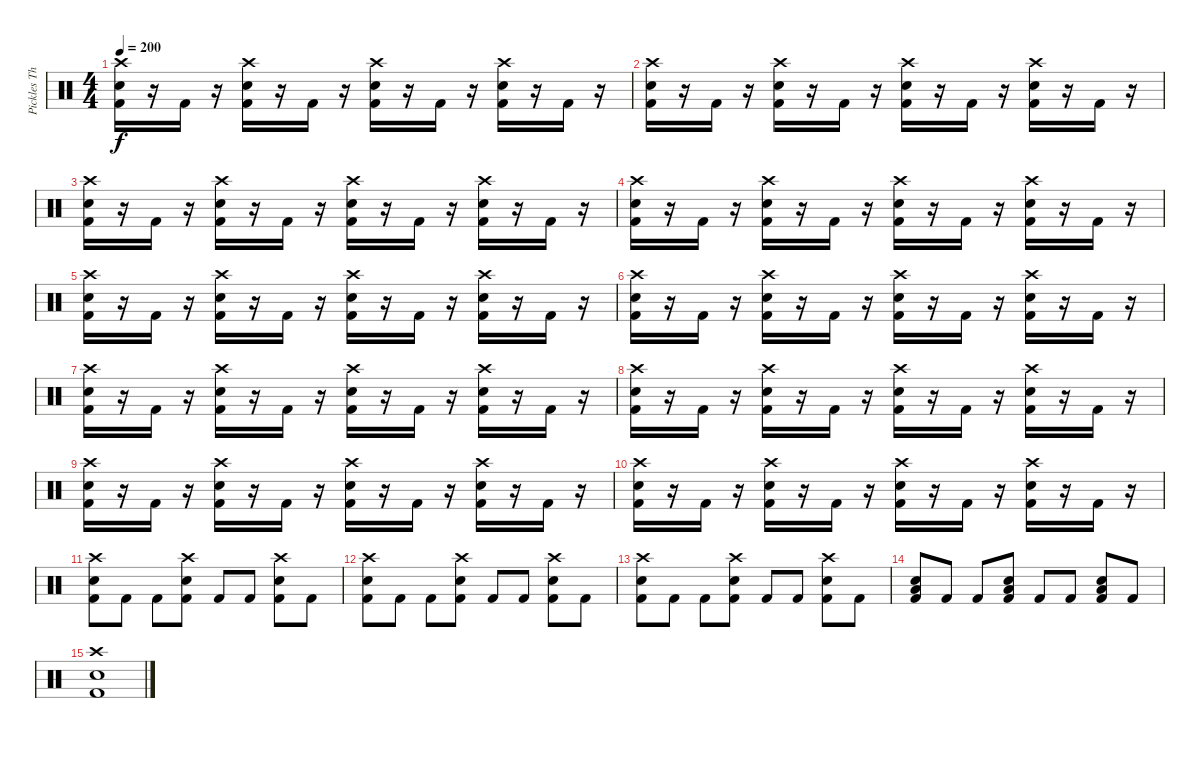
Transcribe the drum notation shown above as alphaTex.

\track ("Pickles The Drummer" "Pickles Th") {instrument percussion}
\staff {score}
\articulation defaults
\ts (4 4)
\tempo 200
\clef neutral
\ks c
("Crash high (hit)" "Electric Snare (hit)" "Kick (hit) 2").16{dy f} r.16 "Kick (hit) 2".16 r.16 ("Crash high (hit)" "Electric Snare (hit)" "Kick (hit) 2").16 r.16 "Kick (hit) 2".16 r.16 ("Crash high (hit)" "Electric Snare (hit)" "Kick (hit) 2").16 r.16 "Kick (hit) 2".16 r.16 ("Crash high (hit)" "Electric Snare (hit)" "Kick (hit) 2").16 r.16 "Kick (hit) 2".16 r.16 |
("Crash high (hit)" "Electric Snare (hit)" "Kick (hit) 2").16 r.16 "Kick (hit) 2".16 r.16 ("Crash high (hit)" "Electric Snare (hit)" "Kick (hit) 2").16 r.16 "Kick (hit) 2".16 r.16 ("Crash high (hit)" "Electric Snare (hit)" "Kick (hit) 2").16 r.16 "Kick (hit) 2".16 r.16 ("Crash high (hit)" "Electric Snare (hit)" "Kick (hit) 2").16 r.16 "Kick (hit) 2".16 r.16 |
("Crash high (hit)" "Electric Snare (hit)" "Kick (hit) 2").16 r.16 "Kick (hit) 2".16 r.16 ("Crash high (hit)" "Electric Snare (hit)" "Kick (hit) 2").16 r.16 "Kick (hit) 2".16 r.16 ("Crash high (hit)" "Electric Snare (hit)" "Kick (hit) 2").16 r.16 "Kick (hit) 2".16 r.16 ("Crash high (hit)" "Electric Snare (hit)" "Kick (hit) 2").16 r.16 "Kick (hit) 2".16 r.16 |
("Crash high (hit)" "Electric Snare (hit)" "Kick (hit) 2").16 r.16 "Kick (hit) 2".16 r.16 ("Crash high (hit)" "Electric Snare (hit)" "Kick (hit) 2").16 r.16 "Kick (hit) 2".16 r.16 ("Crash high (hit)" "Electric Snare (hit)" "Kick (hit) 2").16 r.16 "Kick (hit) 2".16 r.16 ("Crash high (hit)" "Electric Snare (hit)" "Kick (hit) 2").16 r.16 "Kick (hit) 2".16 r.16 |
("Crash high (hit)" "Electric Snare (hit)" "Kick (hit) 2").16 r.16 "Kick (hit) 2".16 r.16 ("Crash high (hit)" "Electric Snare (hit)" "Kick (hit) 2").16 r.16 "Kick (hit) 2".16 r.16 ("Crash high (hit)" "Electric Snare (hit)" "Kick (hit) 2").16 r.16 "Kick (hit) 2".16 r.16 ("Crash high (hit)" "Electric Snare (hit)" "Kick (hit) 2").16 r.16 "Kick (hit) 2".16 r.16 |
("Crash high (hit)" "Electric Snare (hit)" "Kick (hit) 2").16 r.16 "Kick (hit) 2".16 r.16 ("Crash high (hit)" "Electric Snare (hit)" "Kick (hit) 2").16 r.16 "Kick (hit) 2".16 r.16 ("Crash high (hit)" "Electric Snare (hit)" "Kick (hit) 2").16 r.16 "Kick (hit) 2".16 r.16 ("Crash high (hit)" "Electric Snare (hit)" "Kick (hit) 2").16 r.16 "Kick (hit) 2".16 r.16 |
("Crash high (hit)" "Electric Snare (hit)" "Kick (hit) 2").16 r.16 "Kick (hit) 2".16 r.16 ("Crash high (hit)" "Electric Snare (hit)" "Kick (hit) 2").16 r.16 "Kick (hit) 2".16 r.16 ("Crash high (hit)" "Electric Snare (hit)" "Kick (hit) 2").16 r.16 "Kick (hit) 2".16 r.16 ("Crash high (hit)" "Electric Snare (hit)" "Kick (hit) 2").16 r.16 "Kick (hit) 2".16 r.16 |
("Crash high (hit)" "Electric Snare (hit)" "Kick (hit) 2").16 r.16 "Kick (hit) 2".16 r.16 ("Crash high (hit)" "Electric Snare (hit)" "Kick (hit) 2").16 r.16 "Kick (hit) 2".16 r.16 ("Crash high (hit)" "Electric Snare (hit)" "Kick (hit) 2").16 r.16 "Kick (hit) 2".16 r.16 ("Crash high (hit)" "Electric Snare (hit)" "Kick (hit) 2").16 r.16 "Kick (hit) 2".16 r.16 |
("Crash high (hit)" "Electric Snare (hit)" "Kick (hit) 2").16 r.16 "Kick (hit) 2".16 r.16 ("Crash high (hit)" "Electric Snare (hit)" "Kick (hit) 2").16 r.16 "Kick (hit) 2".16 r.16 ("Crash high (hit)" "Electric Snare (hit)" "Kick (hit) 2").16 r.16 "Kick (hit) 2".16 r.16 ("Crash high (hit)" "Electric Snare (hit)" "Kick (hit) 2").16 r.16 "Kick (hit) 2".16 r.16 |
("Crash high (hit)" "Electric Snare (hit)" "Kick (hit) 2").16 r.16 "Kick (hit) 2".16 r.16 ("Crash high (hit)" "Electric Snare (hit)" "Kick (hit) 2").16 r.16 "Kick (hit) 2".16 r.16 ("Crash high (hit)" "Electric Snare (hit)" "Kick (hit) 2").16 r.16 "Kick (hit) 2".16 r.16 ("Crash high (hit)" "Electric Snare (hit)" "Kick (hit) 2").16 r.16 "Kick (hit) 2".16 r.16 |
("Crash high (hit)" "Electric Snare (hit)" "Kick (hit) 2").8 "Kick (hit) 2".8 "Kick (hit) 2".8 ("Crash high (hit)" "Electric Snare (hit)" "Kick (hit) 2").8 "Kick (hit) 2".8 "Kick (hit) 2".8 ("Crash high (hit)" "Electric Snare (hit)" "Kick (hit) 2").8 "Kick (hit) 2".8 |
("Crash high (hit)" "Electric Snare (hit)" "Kick (hit) 2").8 "Kick (hit) 2".8 "Kick (hit) 2".8 ("Crash high (hit)" "Electric Snare (hit)" "Kick (hit) 2").8 "Kick (hit) 2".8 "Kick (hit) 2".8 ("Crash high (hit)" "Electric Snare (hit)" "Kick (hit) 2").8 "Kick (hit) 2".8 |
("Crash high (hit)" "Electric Snare (hit)" "Kick (hit) 2").8 "Kick (hit) 2".8 "Kick (hit) 2".8 ("Crash high (hit)" "Electric Snare (hit)" "Kick (hit) 2").8 "Kick (hit) 2".8 "Kick (hit) 2".8 ("Crash high (hit)" "Electric Snare (hit)" "Kick (hit) 2").8 "Kick (hit) 2".8 |
("Low Floor Tom (hit)" "Electric Snare (hit)" "Kick (hit) 2").8 "Kick (hit) 2".8 "Kick (hit) 2".8 ("Low Floor Tom (hit)" "Electric Snare (hit)" "Kick (hit) 2").8 "Kick (hit) 2".8 "Kick (hit) 2".8 ("Low Floor Tom (hit)" "Electric Snare (hit)" "Kick (hit) 2").8 "Kick (hit) 2".8 |
("Crash high (hit)" "Electric Snare (hit)" "Kick (hit) 2").1
